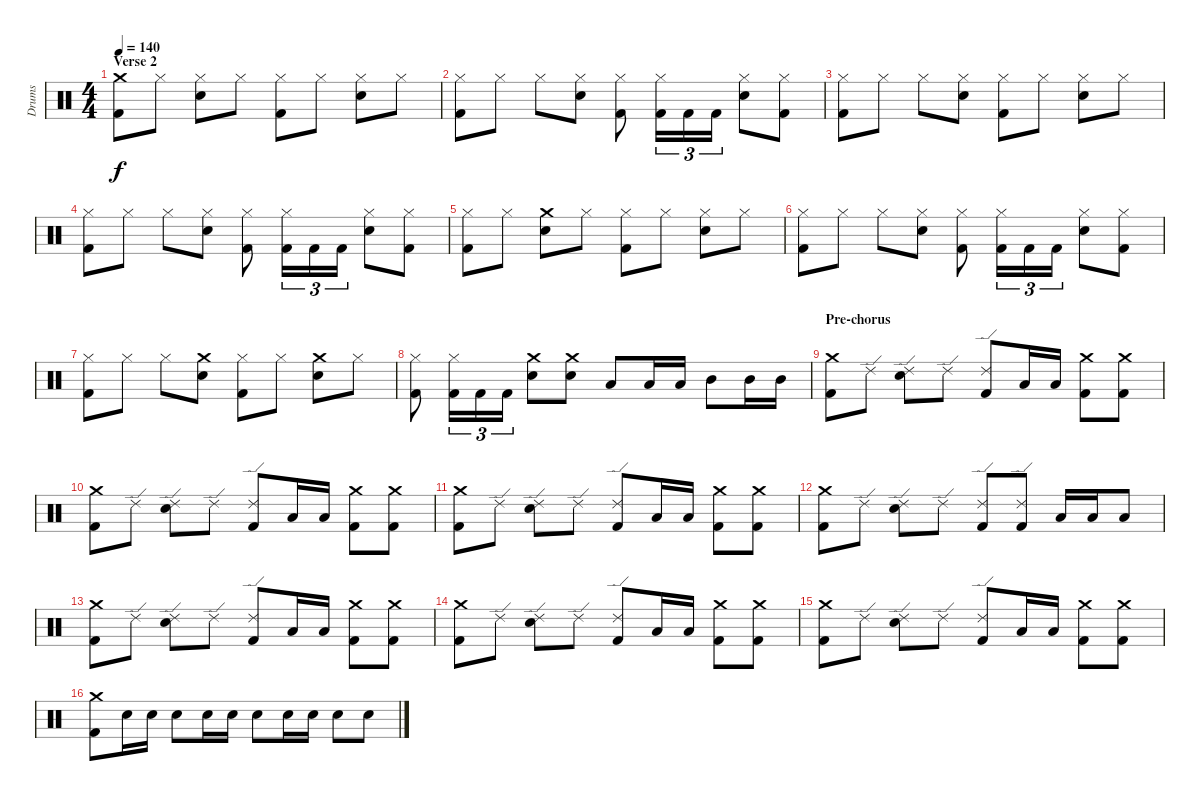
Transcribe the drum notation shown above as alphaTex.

\track ("Drums" "Drums") {instrument percussion}
\staff {score}
\articulation defaults
\ts (4 4)
\section ("" "Verse 2")
\tempo 140
\clef neutral
\ks c
("Kick (hit) 2" "Crash medium (hit)").8{dy f} "Hi-Hat (closed)".8 ("Snare (hit) 2" "Hi-Hat (closed)").8 "Hi-Hat (closed)".8 ("Kick (hit) 2" "Hi-Hat (closed)").8 "Hi-Hat (closed)".8 ("Snare (hit) 2" "Hi-Hat (closed)").8 "Hi-Hat (closed)".8 |
("Kick (hit) 2" "Hi-Hat (closed)").8 "Hi-Hat (closed)".8 "Hi-Hat (closed)".8 ("Snare (hit) 2" "Hi-Hat (closed)").8 ("Kick (hit) 2" "Hi-Hat (closed)").8 ("Kick (hit) 2" "Hi-Hat (closed)").16{tu (3 2)} "Kick (hit) 2".16{tu (3 2)} "Kick (hit) 2".16{tu (3 2)} ("Snare (hit) 2" "Hi-Hat (closed)").8 ("Kick (hit) 2" "Hi-Hat (closed)").8 |
("Hi-Hat (closed)" "Kick (hit) 2").8 "Hi-Hat (closed)".8 "Hi-Hat (closed)".8 ("Snare (hit) 2" "Hi-Hat (closed)").8 ("Hi-Hat (closed)" "Kick (hit) 2").8 "Hi-Hat (closed)".8 ("Snare (hit) 2" "Hi-Hat (closed)").8 "Hi-Hat (closed)".8 |
("Kick (hit) 2" "Hi-Hat (closed)").8 "Hi-Hat (closed)".8 "Hi-Hat (closed)".8 ("Snare (hit) 2" "Hi-Hat (closed)").8 ("Kick (hit) 2" "Hi-Hat (closed)").8 ("Kick (hit) 2" "Hi-Hat (closed)").16{tu (3 2)} "Kick (hit) 2".16{tu (3 2)} "Kick (hit) 2".16{tu (3 2)} ("Snare (hit) 2" "Hi-Hat (closed)").8 ("Kick (hit) 2" "Hi-Hat (closed)").8 |
("Hi-Hat (closed)" "Kick (hit) 2").8 "Hi-Hat (closed)".8 ("Crash medium (hit)" "Snare (hit) 2").8 "Hi-Hat (closed)".8 ("Hi-Hat (closed)" "Kick (hit) 2").8 "Hi-Hat (closed)".8 ("Snare (hit) 2" "Hi-Hat (closed)").8 "Hi-Hat (closed)".8 |
("Kick (hit) 2" "Hi-Hat (closed)").8 "Hi-Hat (closed)".8 "Hi-Hat (closed)".8 ("Snare (hit) 2" "Hi-Hat (closed)").8 ("Kick (hit) 2" "Hi-Hat (closed)").8 ("Kick (hit) 2" "Hi-Hat (closed)").16{tu (3 2)} "Kick (hit) 2".16{tu (3 2)} "Kick (hit) 2".16{tu (3 2)} ("Snare (hit) 2" "Hi-Hat (closed)").8 ("Kick (hit) 2" "Hi-Hat (closed)").8 |
("Kick (hit) 2" "Hi-Hat (closed)").8 "Hi-Hat (closed)".8 "Hi-Hat (closed)".8 ("Crash medium (hit)" "Snare (hit) 2").8 ("Kick (hit) 2" "Hi-Hat (closed)").8 "Hi-Hat (closed)".8 ("Crash medium (hit)" "Snare (hit) 2").8 "Hi-Hat (closed)".8 |
("Hi-Hat (closed)" "Kick (hit) 2").8 ("Hi-Hat (closed)" "Kick (hit) 2").16{tu (3 2)} "Kick (hit) 2".16{tu (3 2)} "Kick (hit) 2".16{tu (3 2)} ("Snare (hit) 2" "Crash medium (hit)").8 ("Snare (hit) 2" "Crash medium (hit)").8 "Low Tom (hit)".8 "Low Tom (hit)".16 "Low Tom (hit)".16 "Mid Tom (hit)".8 "Mid Tom (hit)".16 "Mid Tom (hit)".16 |
\section ("" "Pre-chorus")
("Crash medium (hit)" "Kick (hit) 2").8 "Ride (edge) 2".8 ("Snare (hit) 2" "Ride (edge) 2").8 "Ride (edge) 2".8 ("Ride (edge) 2" "Kick (hit) 2").8 "Low Tom (hit)".16 "Low Tom (hit)".16 ("Crash medium (hit)" "Kick (hit) 2").8 ("Crash medium (hit)" "Kick (hit) 2").8 |
("Crash medium (hit)" "Kick (hit) 2").8 "Ride (edge) 2".8 ("Snare (hit) 2" "Ride (edge) 2").8 "Ride (edge) 2".8 ("Ride (edge) 2" "Kick (hit) 2").8 "Low Tom (hit)".16 "Low Tom (hit)".16 ("Crash medium (hit)" "Kick (hit) 2").8 ("Crash medium (hit)" "Kick (hit) 2").8 |
("Crash medium (hit)" "Kick (hit) 2").8 "Ride (edge) 2".8 ("Snare (hit) 2" "Ride (edge) 2").8 "Ride (edge) 2".8 ("Ride (edge) 2" "Kick (hit) 2").8 "Low Tom (hit)".16 "Low Tom (hit)".16 ("Crash medium (hit)" "Kick (hit) 2").8 ("Crash medium (hit)" "Kick (hit) 2").8 |
("Crash medium (hit)" "Kick (hit) 2").8 "Ride (edge) 2".8 ("Snare (hit) 2" "Ride (edge) 2").8 "Ride (edge) 2".8 ("Kick (hit) 2" "Ride (edge) 2").8 ("Ride (edge) 2" "Kick (hit) 2").8 "Low Tom (hit)".16 "Low Tom (hit)".16 "Low Tom (hit)".8 |
("Crash medium (hit)" "Kick (hit) 2").8 "Ride (edge) 2".8 ("Snare (hit) 2" "Ride (edge) 2").8 "Ride (edge) 2".8 ("Ride (edge) 2" "Kick (hit) 2").8 "Low Tom (hit)".16 "Low Tom (hit)".16 ("Crash medium (hit)" "Kick (hit) 2").8 ("Crash medium (hit)" "Kick (hit) 2").8 |
("Crash medium (hit)" "Kick (hit) 2").8 "Ride (edge) 2".8 ("Snare (hit) 2" "Ride (edge) 2").8 "Ride (edge) 2".8 ("Ride (edge) 2" "Kick (hit) 2").8 "Low Tom (hit)".16 "Low Tom (hit)".16 ("Crash medium (hit)" "Kick (hit) 2").8 ("Crash medium (hit)" "Kick (hit) 2").8 |
("Crash medium (hit)" "Kick (hit) 2").8 "Ride (edge) 2".8 ("Snare (hit) 2" "Ride (edge) 2").8 "Ride (edge) 2".8 ("Ride (edge) 2" "Kick (hit) 2").8 "Low Tom (hit)".16 "Low Tom (hit)".16 ("Crash medium (hit)" "Kick (hit) 2").8 ("Crash medium (hit)" "Kick (hit) 2").8 |
("Kick (hit) 2" "Crash medium (hit)").8 "Snare (hit) 2".16 "Snare (hit) 2".16 "Snare (hit) 2".8 "Snare (hit) 2".16 "Snare (hit) 2".16 "Snare (hit) 2".8 "Snare (hit) 2".16 "Snare (hit) 2".16 "Snare (hit) 2".8 "Snare (hit) 2".8
